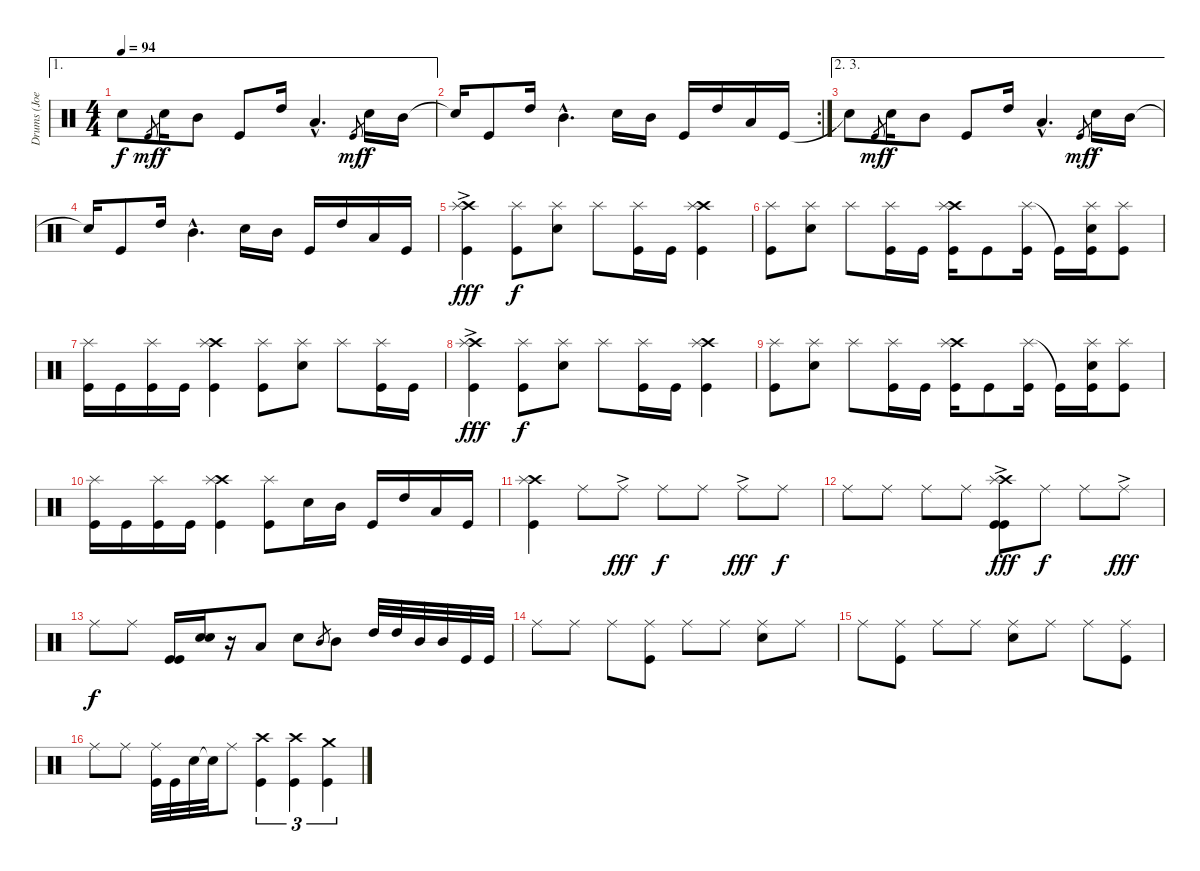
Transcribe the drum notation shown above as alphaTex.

\track ("Drums (Joe)" "Drums (Joe") {instrument percussion}
\staff {score}
\articulation defaults
\ae 1
\ts (4 4)
\tempo 94
\clef neutral
\ks c "Snare (hit)"{t}.8{dy f} "Kick (hit)".8{gr dy mf} "Snare (hit) 2".16{dy f} "Mid Tom (hit)".8 "Kick (hit)".8 "High Tom (hit)".16 "Low Tom (hit)"{hac}.4{d} "Kick (hit)".8{gr dy mf} "Snare (hit) 2".16{dy f} "Mid Tom (hit)".16
|
\rc 2 "Snare (hit)"{t}.16 "Kick (hit)".8 "High Tom (hit)".16 "Mid Tom (hit)"{hac}.4{d} "Snare (hit) 2".16 "Mid Tom (hit)".16 "Kick (hit)".16 "High Tom (hit)".16 "Low Tom (hit)".16 "Kick (hit)".16
|
\ae (2 3)
"Snare (hit)"{t}.8 "Kick (hit)".8{gr dy mf} "Snare (hit) 2".16{dy f} "Mid Tom (hit)".8 "Kick (hit)".8 "High Tom (hit)".16 "Low Tom (hit)"{hac}.4{d} "Kick (hit)".8{gr dy mf} "Snare (hit) 2".16{dy f} "Mid Tom (hit)".16 |
"Snare (hit)"{t}.16 "Kick (hit)".8 "High Tom (hit)".16 "Mid Tom (hit)"{hac}.4{d} "Snare (hit) 2".16 "Mid Tom (hit)".16 "Kick (hit)".16 "High Tom (hit)".16 "Low Tom (hit)".16 "Kick (hit)".16 |
("Crash high (hit)" "Splash (hit)"{ac} "Kick (hit)").4{dy fff} ("Splash (hit)" "Kick (hit)").8{dy f} ("Splash (hit)" "Snare (hit) 2").8 "Splash (hit)".8 ("Splash (hit)" "Kick (hit)").16 "Kick (hit)".16 ("Crash high (hit)" "Splash (hit)" "Kick (hit)").4 |
("Splash (hit)" "Kick (hit)").8 ("Splash (hit)" "Snare (hit) 2").8 "Splash (hit)".8 ("Splash (hit)" "Kick (hit)").16 "Kick (hit)".16 ("Crash high (hit)" "Splash (hit)" "Kick (hit)").16 "Kick (hit)".8 ("Splash (hit)" "Kick (hit)").16 "Kick (hit)"{t}.16 ("Splash (hit)" "Snare (hit) 2" "Kick (hit)").16 ("Splash (hit)" "Kick (hit)").8 |
("Splash (hit)" "Kick (hit)").16 "Kick (hit)".16 ("Splash (hit)" "Kick (hit)").16 "Kick (hit)".16 ("Crash high (hit)" "Splash (hit)" "Kick (hit)").4 ("Splash (hit)" "Kick (hit)").8 ("Splash (hit)" "Snare (hit) 2").8 "Splash (hit)".8 ("Splash (hit)" "Kick (hit)").16 "Kick (hit)".16 |
("Crash high (hit)" "Splash (hit)"{ac} "Kick (hit)").4{dy fff} ("Splash (hit)" "Kick (hit)").8{dy f} ("Splash (hit)" "Snare (hit) 2").8 "Splash (hit)".8 ("Splash (hit)" "Kick (hit)").16 "Kick (hit)".16 ("Crash high (hit)" "Splash (hit)" "Kick (hit)").4 |
("Splash (hit)" "Kick (hit)").8 ("Splash (hit)" "Snare (hit) 2").8 "Splash (hit)".8 ("Splash (hit)" "Kick (hit)").16 "Kick (hit)".16 ("Crash high (hit)" "Splash (hit)" "Kick (hit)").16 "Kick (hit)".8 ("Splash (hit)" "Kick (hit)").16 "Kick (hit)"{t}.16 ("Splash (hit)" "Snare (hit) 2" "Kick (hit)").16 ("Splash (hit)" "Kick (hit)").8 |
("Splash (hit)" "Kick (hit)").16 "Kick (hit)".16 ("Splash (hit)" "Kick (hit)").16 "Kick (hit)".16 ("Crash high (hit)" "Splash (hit)" "Kick (hit)").4 ("Splash (hit)" "Kick (hit)").8 "Snare (hit) 2".16 "Mid Tom (hit)".16 "Kick (hit)".16 "High Tom (hit)".16 "Low Tom (hit)".16 "Kick (hit)".16 |
("Crash high (hit)" "Splash (hit)" "Kick (hit)").4 "Ride (middle)".8 "Ride (middle)"{ac}.8{dy fff} "Ride (middle)".8{dy f} "Ride (middle)".8 "Ride (middle)"{ac}.8{dy fff} "Ride (middle)".8{dy f} |
"Ride (middle)".8 "Ride (middle)".8 "Ride (middle)".8 "Ride (middle)".8 ("Crash high (hit)"{ac} "Splash (hit)"{ac} "Kick (hit)" "Kick (hit)").8{dy fff} "Ride (middle)".8{dy f} "Ride (middle)".8 "Ride (middle)"{ac}.8{dy fff} |
"Ride (middle)".8{dy f} "Ride (middle)".8 ("Kick (hit)" "Kick (hit)").16 ("Snare (hit) 2" "Snare (hit) 2").16 r.16 "Low Tom (hit)".8 "Snare (hit) 2".8 "Mid Tom (hit)".8{gr} "Mid Tom (hit)".8 "High Tom (hit)".32 "High Tom (hit)".32 "Mid Tom (hit)".32 "Mid Tom (hit)".32 "Kick (hit)".32 "Kick (hit)".32 |
"Ride (middle)".8 "Ride (middle)".8 "Ride (middle)".8 ("Ride (middle)" "Kick (hit)").8 "Ride (middle)".8 "Ride (middle)".8 ("Ride (middle)" "Snare (hit) 2").8 "Ride (middle)".8 |
"Ride (middle)".8 ("Ride (middle)" "Kick (hit)").8 "Ride (middle)".8 "Ride (middle)".8 ("Ride (middle)" "Snare (hit) 2").8 "Ride (middle)".8 "Ride (middle)".8 ("Ride (middle)" "Kick (hit)").8 |
"Ride (middle)".8 "Ride (middle)".8 ("Ride (middle)" "Kick (hit)").32 "Kick (hit)".32 "Snare (hit) 2".32 "Snare (hit)"{t}.32 "Ride (middle)".8 ("Crash high (hit)" "Kick (hit)").4{tu (3 2)} ("Crash high (hit)" "Kick (hit)").4{tu (3 2)} ("Crash medium (hit)" "Kick (hit)").4{tu (3 2)}
